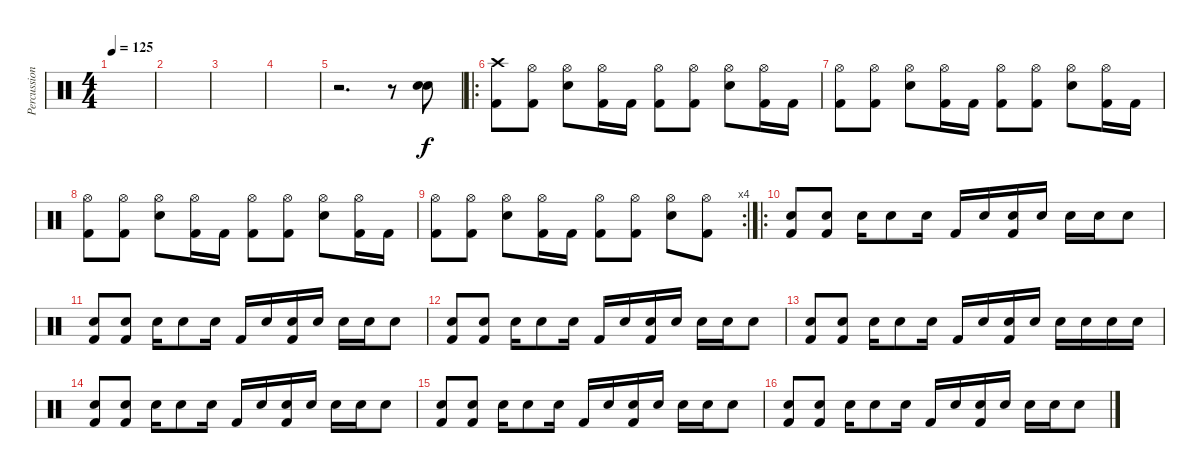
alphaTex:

\track ("Percussion" "Percussion") {instrument percussion}
\staff {score}
\articulation defaults
\ts (4 4)
\tempo 125
\clef neutral
\ks c
|
|
|
|
r.2{d} r.8 ("Electric Snare (hit)" "Electric Snare (hit)").8 |
\ro
("Crash high (hit)" "Kick (hit) 2").8 ("Hi-Hat (open)" "Kick (hit) 2").8 ("Hi-Hat (open)" "Electric Snare (hit)").8 ("Hi-Hat (open)" "Kick (hit) 2").16 "Kick (hit) 2".16 ("Hi-Hat (open)" "Kick (hit) 2").8 ("Hi-Hat (open)" "Kick (hit) 2").8 ("Hi-Hat (open)" "Electric Snare (hit)").8 ("Hi-Hat (open)" "Kick (hit) 2").16 "Kick (hit) 2".16 |
("Hi-Hat (open)" "Kick (hit) 2").8 ("Hi-Hat (open)" "Kick (hit) 2").8 ("Hi-Hat (open)" "Electric Snare (hit)").8 ("Hi-Hat (open)" "Kick (hit) 2").16 "Kick (hit) 2".16 ("Hi-Hat (open)" "Kick (hit) 2").8 ("Hi-Hat (open)" "Kick (hit) 2").8 ("Hi-Hat (open)" "Electric Snare (hit)").8 ("Hi-Hat (open)" "Kick (hit) 2").16 "Kick (hit) 2".16 |
("Hi-Hat (open)" "Kick (hit) 2").8 ("Hi-Hat (open)" "Kick (hit) 2").8 ("Hi-Hat (open)" "Electric Snare (hit)").8 ("Hi-Hat (open)" "Kick (hit) 2").16 "Kick (hit) 2".16 ("Hi-Hat (open)" "Kick (hit) 2").8 ("Hi-Hat (open)" "Kick (hit) 2").8 ("Hi-Hat (open)" "Electric Snare (hit)").8 ("Hi-Hat (open)" "Kick (hit) 2").16 "Kick (hit) 2".16 |
\rc 4
("Hi-Hat (open)" "Kick (hit) 2").8 ("Hi-Hat (open)" "Kick (hit) 2").8 ("Hi-Hat (open)" "Electric Snare (hit)").8 ("Hi-Hat (open)" "Kick (hit) 2").16 "Kick (hit) 2".16 ("Hi-Hat (open)" "Kick (hit) 2").8 ("Hi-Hat (open)" "Kick (hit) 2").8 ("Hi-Hat (open)" "Electric Snare (hit)").8 ("Hi-Hat (open)" "Kick (hit) 2").8 |
\ro
("Electric Snare (hit)" "Kick (hit) 2").8 ("Electric Snare (hit)" "Kick (hit) 2").8 "Electric Snare (hit)".16 "Electric Snare (hit)".8 "Electric Snare (hit)".16 "Kick (hit) 2".16 "Electric Snare (hit)".16 ("Electric Snare (hit)" "Kick (hit) 2").16 "Electric Snare (hit)".16 "Electric Snare (hit)".16 "Electric Snare (hit)".16 "Electric Snare (hit)".8 |
("Electric Snare (hit)" "Kick (hit) 2").8 ("Electric Snare (hit)" "Kick (hit) 2").8 "Electric Snare (hit)".16 "Electric Snare (hit)".8 "Electric Snare (hit)".16 "Kick (hit) 2".16 "Electric Snare (hit)".16 ("Electric Snare (hit)" "Kick (hit) 2").16 "Electric Snare (hit)".16 "Electric Snare (hit)".16 "Electric Snare (hit)".16 "Electric Snare (hit)".8 |
("Electric Snare (hit)" "Kick (hit) 2").8 ("Electric Snare (hit)" "Kick (hit) 2").8 "Electric Snare (hit)".16 "Electric Snare (hit)".8 "Electric Snare (hit)".16 "Kick (hit) 2".16 "Electric Snare (hit)".16 ("Electric Snare (hit)" "Kick (hit) 2").16 "Electric Snare (hit)".16 "Electric Snare (hit)".16 "Electric Snare (hit)".16 "Electric Snare (hit)".8 |
("Electric Snare (hit)" "Kick (hit) 2").8 ("Electric Snare (hit)" "Kick (hit) 2").8 "Electric Snare (hit)".16 "Electric Snare (hit)".8 "Electric Snare (hit)".16 "Kick (hit) 2".16 "Electric Snare (hit)".16 ("Electric Snare (hit)" "Kick (hit) 2").16 "Electric Snare (hit)".16 "Electric Snare (hit)".16 "Electric Snare (hit)".16 "Electric Snare (hit)".16 "Electric Snare (hit)".16 |
("Electric Snare (hit)" "Kick (hit) 2").8 ("Electric Snare (hit)" "Kick (hit) 2").8 "Electric Snare (hit)".16 "Electric Snare (hit)".8 "Electric Snare (hit)".16 "Kick (hit) 2".16 "Electric Snare (hit)".16 ("Electric Snare (hit)" "Kick (hit) 2").16 "Electric Snare (hit)".16 "Electric Snare (hit)".16 "Electric Snare (hit)".16 "Electric Snare (hit)".8 |
("Electric Snare (hit)" "Kick (hit) 2").8 ("Electric Snare (hit)" "Kick (hit) 2").8 "Electric Snare (hit)".16 "Electric Snare (hit)".8 "Electric Snare (hit)".16 "Kick (hit) 2".16 "Electric Snare (hit)".16 ("Electric Snare (hit)" "Kick (hit) 2").16 "Electric Snare (hit)".16 "Electric Snare (hit)".16 "Electric Snare (hit)".16 "Electric Snare (hit)".8 |
("Electric Snare (hit)" "Kick (hit) 2").8 ("Electric Snare (hit)" "Kick (hit) 2").8 "Electric Snare (hit)".16 "Electric Snare (hit)".8 "Electric Snare (hit)".16 "Kick (hit) 2".16 "Electric Snare (hit)".16 ("Electric Snare (hit)" "Kick (hit) 2").16 "Electric Snare (hit)".16 "Electric Snare (hit)".16 "Electric Snare (hit)".16 "Electric Snare (hit)".8
